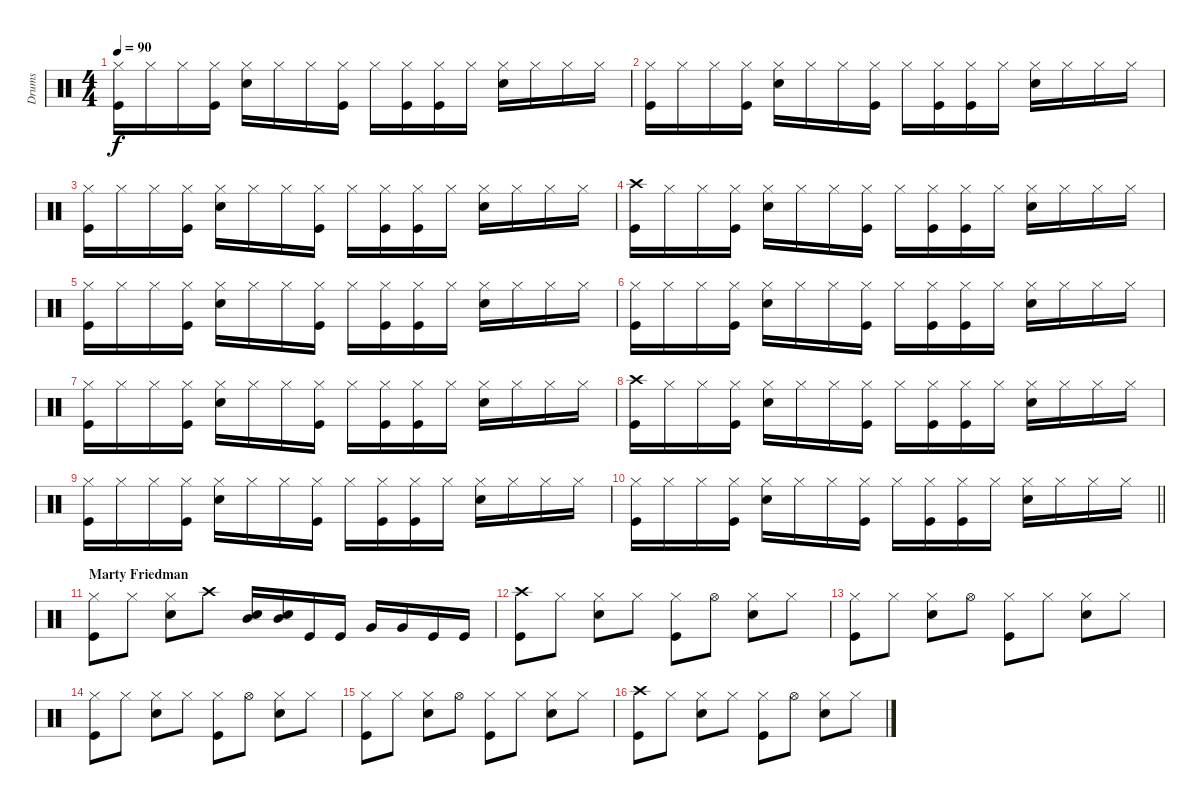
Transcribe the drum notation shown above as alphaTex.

\track ("Drums" "Drums") {instrument percussion}
\staff {score}
\articulation defaults
\ts (4 4)
\tempo 90
\clef neutral
\ks c
("Hi-Hat (closed)" "Kick (hit)").16{dy f} "Hi-Hat (closed)".16 "Hi-Hat (closed)".16 ("Hi-Hat (closed)" "Kick (hit)").16 ("Hi-Hat (closed)" "Snare (hit) 2").16 "Hi-Hat (closed)".16 "Hi-Hat (closed)".16 ("Hi-Hat (closed)" "Kick (hit)").16 "Hi-Hat (closed)".16 ("Hi-Hat (closed)" "Kick (hit)").16 ("Hi-Hat (closed)" "Kick (hit)").16 "Hi-Hat (closed)".16 ("Hi-Hat (closed)" "Snare (hit) 2").16 "Hi-Hat (closed)".16 "Hi-Hat (closed)".16 "Hi-Hat (closed)".16 |
("Hi-Hat (closed)" "Kick (hit)").16 "Hi-Hat (closed)".16 "Hi-Hat (closed)".16 ("Hi-Hat (closed)" "Kick (hit)").16 ("Hi-Hat (closed)" "Snare (hit) 2").16 "Hi-Hat (closed)".16 "Hi-Hat (closed)".16 ("Hi-Hat (closed)" "Kick (hit)").16 "Hi-Hat (closed)".16 ("Hi-Hat (closed)" "Kick (hit)").16 ("Hi-Hat (closed)" "Kick (hit)").16 "Hi-Hat (closed)".16 ("Hi-Hat (closed)" "Snare (hit) 2").16 "Hi-Hat (closed)".16 "Hi-Hat (closed)".16 "Hi-Hat (closed)".16 |
("Hi-Hat (closed)" "Kick (hit)").16 "Hi-Hat (closed)".16 "Hi-Hat (closed)".16 ("Hi-Hat (closed)" "Kick (hit)").16 ("Hi-Hat (closed)" "Snare (hit) 2").16 "Hi-Hat (closed)".16 "Hi-Hat (closed)".16 ("Hi-Hat (closed)" "Kick (hit)").16 "Hi-Hat (closed)".16 ("Hi-Hat (closed)" "Kick (hit)").16 ("Hi-Hat (closed)" "Kick (hit)").16 "Hi-Hat (closed)".16 ("Hi-Hat (closed)" "Snare (hit) 2").16 "Hi-Hat (closed)".16 "Hi-Hat (closed)".16 "Hi-Hat (closed)".16 |
("Crash high (hit)" "Kick (hit)").16 "Hi-Hat (closed)".16 "Hi-Hat (closed)".16 ("Hi-Hat (closed)" "Kick (hit)").16 ("Hi-Hat (closed)" "Snare (hit) 2").16 "Hi-Hat (closed)".16 "Hi-Hat (closed)".16 ("Hi-Hat (closed)" "Kick (hit)").16 "Hi-Hat (closed)".16 ("Hi-Hat (closed)" "Kick (hit)").16 ("Hi-Hat (closed)" "Kick (hit)").16 "Hi-Hat (closed)".16 ("Hi-Hat (closed)" "Snare (hit) 2").16 "Hi-Hat (closed)".16 "Hi-Hat (closed)".16 "Hi-Hat (closed)".16 |
("Hi-Hat (closed)" "Kick (hit)").16 "Hi-Hat (closed)".16 "Hi-Hat (closed)".16 ("Hi-Hat (closed)" "Kick (hit)").16 ("Hi-Hat (closed)" "Snare (hit) 2").16 "Hi-Hat (closed)".16 "Hi-Hat (closed)".16 ("Hi-Hat (closed)" "Kick (hit)").16 "Hi-Hat (closed)".16 ("Hi-Hat (closed)" "Kick (hit)").16 ("Hi-Hat (closed)" "Kick (hit)").16 "Hi-Hat (closed)".16 ("Hi-Hat (closed)" "Snare (hit) 2").16 "Hi-Hat (closed)".16 "Hi-Hat (closed)".16 "Hi-Hat (closed)".16 |
("Hi-Hat (closed)" "Kick (hit)").16 "Hi-Hat (closed)".16 "Hi-Hat (closed)".16 ("Hi-Hat (closed)" "Kick (hit)").16 ("Hi-Hat (closed)" "Snare (hit) 2").16 "Hi-Hat (closed)".16 "Hi-Hat (closed)".16 ("Hi-Hat (closed)" "Kick (hit)").16 "Hi-Hat (closed)".16 ("Hi-Hat (closed)" "Kick (hit)").16 ("Hi-Hat (closed)" "Kick (hit)").16 "Hi-Hat (closed)".16 ("Hi-Hat (closed)" "Snare (hit) 2").16 "Hi-Hat (closed)".16 "Hi-Hat (closed)".16 "Hi-Hat (closed)".16 |
("Hi-Hat (closed)" "Kick (hit)").16 "Hi-Hat (closed)".16 "Hi-Hat (closed)".16 ("Hi-Hat (closed)" "Kick (hit)").16 ("Hi-Hat (closed)" "Snare (hit) 2").16 "Hi-Hat (closed)".16 "Hi-Hat (closed)".16 ("Hi-Hat (closed)" "Kick (hit)").16 "Hi-Hat (closed)".16 ("Hi-Hat (closed)" "Kick (hit)").16 ("Hi-Hat (closed)" "Kick (hit)").16 "Hi-Hat (closed)".16 ("Hi-Hat (closed)" "Snare (hit) 2").16 "Hi-Hat (closed)".16 "Hi-Hat (closed)".16 "Hi-Hat (closed)".16 |
("Crash high (hit)" "Kick (hit)").16 "Hi-Hat (closed)".16 "Hi-Hat (closed)".16 ("Hi-Hat (closed)" "Kick (hit)").16 ("Hi-Hat (closed)" "Snare (hit) 2").16 "Hi-Hat (closed)".16 "Hi-Hat (closed)".16 ("Hi-Hat (closed)" "Kick (hit)").16 "Hi-Hat (closed)".16 ("Hi-Hat (closed)" "Kick (hit)").16 ("Hi-Hat (closed)" "Kick (hit)").16 "Hi-Hat (closed)".16 ("Hi-Hat (closed)" "Snare (hit) 2").16 "Hi-Hat (closed)".16 "Hi-Hat (closed)".16 "Hi-Hat (closed)".16 |
("Hi-Hat (closed)" "Kick (hit)").16 "Hi-Hat (closed)".16 "Hi-Hat (closed)".16 ("Hi-Hat (closed)" "Kick (hit)").16 ("Hi-Hat (closed)" "Snare (hit) 2").16 "Hi-Hat (closed)".16 "Hi-Hat (closed)".16 ("Hi-Hat (closed)" "Kick (hit)").16 "Hi-Hat (closed)".16 ("Hi-Hat (closed)" "Kick (hit)").16 ("Hi-Hat (closed)" "Kick (hit)").16 "Hi-Hat (closed)".16 ("Hi-Hat (closed)" "Snare (hit) 2").16 "Hi-Hat (closed)".16 "Hi-Hat (closed)".16 "Hi-Hat (closed)".16 |
\barLineRight lightlight
("Hi-Hat (closed)" "Kick (hit)").16 "Hi-Hat (closed)".16 "Hi-Hat (closed)".16 ("Hi-Hat (closed)" "Kick (hit)").16 ("Hi-Hat (closed)" "Snare (hit) 2").16 "Hi-Hat (closed)".16 "Hi-Hat (closed)".16 ("Hi-Hat (closed)" "Kick (hit)").16 "Hi-Hat (closed)".16 ("Hi-Hat (closed)" "Kick (hit)").16 ("Hi-Hat (closed)" "Kick (hit)").16 "Hi-Hat (closed)".16 ("Hi-Hat (closed)" "Snare (hit) 2").16 "Hi-Hat (closed)".16 "Hi-Hat (closed)".16 "Hi-Hat (closed)".16 |
\section ("" "Marty Friedman")
("Hi-Hat (closed)" "Kick (hit)").8 "Hi-Hat (closed)".8 ("Hi-Hat (closed)" "Snare (hit) 2").8 "Crash high (hit)".8 ("Mid Tom (hit)" "Snare (hit) 2").16 ("Mid Tom (hit)" "Snare (hit) 2").16 "Kick (hit)".16 "Kick (hit)".16 "Very Low Tom (hit)".16 "Very Low Tom (hit)".16 "Kick (hit)".16 "Kick (hit)".16 |
("Crash high (hit)" "Kick (hit)").8 "Hi-Hat (closed)".8 ("Hi-Hat (closed)" "Snare (hit) 2").8 "Hi-Hat (closed)".8 ("Hi-Hat (closed)" "Kick (hit)").8 "Hi-Hat (open)".8 ("Hi-Hat (closed)" "Snare (hit) 2").8 "Hi-Hat (closed)".8 |
("Hi-Hat (closed)" "Kick (hit)").8 "Hi-Hat (closed)".8 ("Hi-Hat (closed)" "Snare (hit) 2").8 "Hi-Hat (open)".8 ("Hi-Hat (closed)" "Kick (hit)").8 "Hi-Hat (closed)".8 ("Hi-Hat (closed)" "Snare (hit) 2").8 "Hi-Hat (closed)".8 |
("Hi-Hat (closed)" "Kick (hit)").8 "Hi-Hat (closed)".8 ("Hi-Hat (closed)" "Snare (hit) 2").8 "Hi-Hat (closed)".8 ("Hi-Hat (closed)" "Kick (hit)").8 "Hi-Hat (open)".8 ("Hi-Hat (closed)" "Snare (hit) 2").8 "Hi-Hat (closed)".8 |
("Hi-Hat (closed)" "Kick (hit)").8 "Hi-Hat (closed)".8 ("Hi-Hat (closed)" "Snare (hit) 2").8 "Hi-Hat (open)".8 ("Hi-Hat (closed)" "Kick (hit)").8 "Hi-Hat (closed)".8 ("Hi-Hat (closed)" "Snare (hit) 2").8 "Hi-Hat (closed)".8 |
("Crash high (hit)" "Kick (hit)").8 "Hi-Hat (closed)".8 ("Hi-Hat (closed)" "Snare (hit) 2").8 "Hi-Hat (closed)".8 ("Hi-Hat (closed)" "Kick (hit)").8 "Hi-Hat (open)".8 ("Hi-Hat (closed)" "Snare (hit) 2").8 "Hi-Hat (closed)".8
